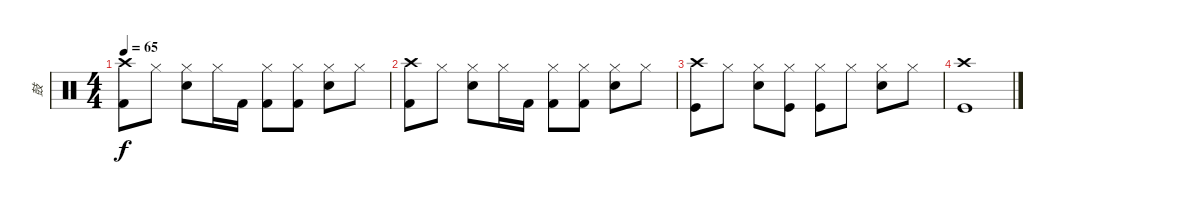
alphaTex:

\track ("鼓" "鼓") {instrument percussion}
\staff {score}
\articulation defaults
\ts (4 4)
\tempo 65
\clef neutral
\ks c
("Crash high (hit)" "Kick (hit) 2").8{dy f} "Hi-Hat (closed)".8 ("Hi-Hat (closed)" "Snare (hit) 2").8 "Hi-Hat (closed)".16 "Kick (hit) 2".16 ("Hi-Hat (closed)" "Kick (hit) 2").8 ("Hi-Hat (closed)" "Kick (hit) 2").8 ("Hi-Hat (closed)" "Snare (hit) 2").8 "Hi-Hat (closed)".8 |
("Crash high (hit)" "Kick (hit) 2").8 "Hi-Hat (closed)".8 ("Hi-Hat (closed)" "Snare (hit) 2").8 "Hi-Hat (closed)".16 "Kick (hit) 2".16 ("Hi-Hat (closed)" "Kick (hit) 2").8 ("Hi-Hat (closed)" "Kick (hit) 2").8 ("Hi-Hat (closed)" "Snare (hit) 2").8 "Hi-Hat (closed)".8 |
("Crash high (hit)" "Kick (hit)").8 "Hi-Hat (closed)".8 ("Hi-Hat (closed)" "Electric Snare (hit)").8 ("Hi-Hat (closed)" "Kick (hit)").8 ("Hi-Hat (closed)" "Kick (hit)").8 "Hi-Hat (closed)".8 ("Hi-Hat (closed)" "Electric Snare (hit)").8 "Hi-Hat (closed)".8 |
("Crash high (hit)" "Kick (hit)").1
